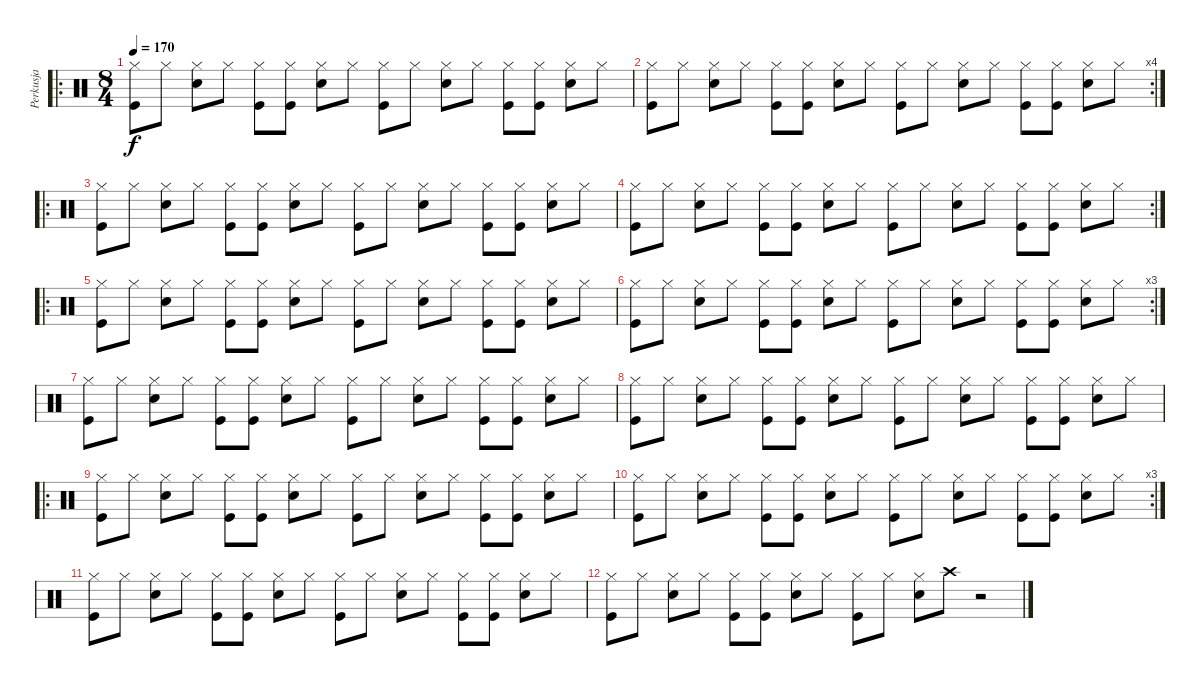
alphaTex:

\track ("Perkusja" "Perkusja") {instrument percussion}
\staff {score}
\articulation defaults
\ro
\ts (8 4)
\tempo 170
\clef neutral
\ks c
("Kick (hit)" "Hi-Hat (closed)").8{dy f} "Hi-Hat (closed)".8 ("Electric Snare (hit)" "Hi-Hat (closed)").8 "Hi-Hat (closed)".8 ("Kick (hit)" "Hi-Hat (closed)").8 ("Kick (hit)" "Hi-Hat (closed)").8 ("Electric Snare (hit)" "Hi-Hat (closed)").8 "Hi-Hat (closed)".8 ("Kick (hit)" "Hi-Hat (closed)").8 "Hi-Hat (closed)".8 ("Electric Snare (hit)" "Hi-Hat (closed)").8 "Hi-Hat (closed)".8 ("Kick (hit)" "Hi-Hat (closed)").8 ("Kick (hit)" "Hi-Hat (closed)").8 ("Electric Snare (hit)" "Hi-Hat (closed)").8 "Hi-Hat (closed)".8 |
\rc 4
("Kick (hit)" "Hi-Hat (closed)").8 "Hi-Hat (closed)".8 ("Electric Snare (hit)" "Hi-Hat (closed)").8 "Hi-Hat (closed)".8 ("Kick (hit)" "Hi-Hat (closed)").8 ("Kick (hit)" "Hi-Hat (closed)").8 ("Electric Snare (hit)" "Hi-Hat (closed)").8 "Hi-Hat (closed)".8 ("Kick (hit)" "Hi-Hat (closed)").8 "Hi-Hat (closed)".8 ("Electric Snare (hit)" "Hi-Hat (closed)").8 "Hi-Hat (closed)".8 ("Kick (hit)" "Hi-Hat (closed)").8 ("Kick (hit)" "Hi-Hat (closed)").8 ("Electric Snare (hit)" "Hi-Hat (closed)").8 "Hi-Hat (closed)".8 |
\ro
("Kick (hit)" "Hi-Hat (closed)").8 "Hi-Hat (closed)".8 ("Electric Snare (hit)" "Hi-Hat (closed)").8 "Hi-Hat (closed)".8 ("Kick (hit)" "Hi-Hat (closed)").8 ("Kick (hit)" "Hi-Hat (closed)").8 ("Electric Snare (hit)" "Hi-Hat (closed)").8 "Hi-Hat (closed)".8 ("Kick (hit)" "Hi-Hat (closed)").8 "Hi-Hat (closed)".8 ("Electric Snare (hit)" "Hi-Hat (closed)").8 "Hi-Hat (closed)".8 ("Kick (hit)" "Hi-Hat (closed)").8 ("Kick (hit)" "Hi-Hat (closed)").8 ("Electric Snare (hit)" "Hi-Hat (closed)").8 "Hi-Hat (closed)".8 |
\rc 2
("Kick (hit)" "Hi-Hat (closed)").8 "Hi-Hat (closed)".8 ("Electric Snare (hit)" "Hi-Hat (closed)").8 "Hi-Hat (closed)".8 ("Kick (hit)" "Hi-Hat (closed)").8 ("Kick (hit)" "Hi-Hat (closed)").8 ("Electric Snare (hit)" "Hi-Hat (closed)").8 "Hi-Hat (closed)".8 ("Kick (hit)" "Hi-Hat (closed)").8 "Hi-Hat (closed)".8 ("Electric Snare (hit)" "Hi-Hat (closed)").8 "Hi-Hat (closed)".8 ("Kick (hit)" "Hi-Hat (closed)").8 ("Kick (hit)" "Hi-Hat (closed)").8 ("Electric Snare (hit)" "Hi-Hat (closed)").8 "Hi-Hat (closed)".8 |
\ro
("Kick (hit)" "Hi-Hat (closed)").8 "Hi-Hat (closed)".8 ("Electric Snare (hit)" "Hi-Hat (closed)").8 "Hi-Hat (closed)".8 ("Kick (hit)" "Hi-Hat (closed)").8 ("Kick (hit)" "Hi-Hat (closed)").8 ("Electric Snare (hit)" "Hi-Hat (closed)").8 "Hi-Hat (closed)".8 ("Kick (hit)" "Hi-Hat (closed)").8 "Hi-Hat (closed)".8 ("Electric Snare (hit)" "Hi-Hat (closed)").8 "Hi-Hat (closed)".8 ("Kick (hit)" "Hi-Hat (closed)").8 ("Kick (hit)" "Hi-Hat (closed)").8 ("Electric Snare (hit)" "Hi-Hat (closed)").8 "Hi-Hat (closed)".8 |
\rc 3
("Kick (hit)" "Hi-Hat (closed)").8 "Hi-Hat (closed)".8 ("Electric Snare (hit)" "Hi-Hat (closed)").8 "Hi-Hat (closed)".8 ("Kick (hit)" "Hi-Hat (closed)").8 ("Kick (hit)" "Hi-Hat (closed)").8 ("Electric Snare (hit)" "Hi-Hat (closed)").8 "Hi-Hat (closed)".8 ("Kick (hit)" "Hi-Hat (closed)").8 "Hi-Hat (closed)".8 ("Electric Snare (hit)" "Hi-Hat (closed)").8 "Hi-Hat (closed)".8 ("Kick (hit)" "Hi-Hat (closed)").8 ("Kick (hit)" "Hi-Hat (closed)").8 ("Electric Snare (hit)" "Hi-Hat (closed)").8 "Hi-Hat (closed)".8 |
("Kick (hit)" "Hi-Hat (closed)").8 "Hi-Hat (closed)".8 ("Electric Snare (hit)" "Hi-Hat (closed)").8 "Hi-Hat (closed)".8 ("Kick (hit)" "Hi-Hat (closed)").8 ("Kick (hit)" "Hi-Hat (closed)").8 ("Electric Snare (hit)" "Hi-Hat (closed)").8 "Hi-Hat (closed)".8 ("Kick (hit)" "Hi-Hat (closed)").8 "Hi-Hat (closed)".8 ("Electric Snare (hit)" "Hi-Hat (closed)").8 "Hi-Hat (closed)".8 ("Kick (hit)" "Hi-Hat (closed)").8 ("Kick (hit)" "Hi-Hat (closed)").8 ("Electric Snare (hit)" "Hi-Hat (closed)").8 "Hi-Hat (closed)".8 |
("Kick (hit)" "Hi-Hat (closed)").8 "Hi-Hat (closed)".8 ("Electric Snare (hit)" "Hi-Hat (closed)").8 "Hi-Hat (closed)".8 ("Kick (hit)" "Hi-Hat (closed)").8 ("Kick (hit)" "Hi-Hat (closed)").8 ("Electric Snare (hit)" "Hi-Hat (closed)").8 "Hi-Hat (closed)".8 ("Kick (hit)" "Hi-Hat (closed)").8 "Hi-Hat (closed)".8 ("Electric Snare (hit)" "Hi-Hat (closed)").8 "Hi-Hat (closed)".8 ("Kick (hit)" "Hi-Hat (closed)").8 ("Kick (hit)" "Hi-Hat (closed)").8 ("Electric Snare (hit)" "Hi-Hat (closed)").8 "Hi-Hat (closed)".8 |
\ro
("Kick (hit)" "Hi-Hat (closed)").8 "Hi-Hat (closed)".8 ("Electric Snare (hit)" "Hi-Hat (closed)").8 "Hi-Hat (closed)".8 ("Kick (hit)" "Hi-Hat (closed)").8 ("Kick (hit)" "Hi-Hat (closed)").8 ("Electric Snare (hit)" "Hi-Hat (closed)").8 "Hi-Hat (closed)".8 ("Kick (hit)" "Hi-Hat (closed)").8 "Hi-Hat (closed)".8 ("Electric Snare (hit)" "Hi-Hat (closed)").8 "Hi-Hat (closed)".8 ("Kick (hit)" "Hi-Hat (closed)").8 ("Kick (hit)" "Hi-Hat (closed)").8 ("Electric Snare (hit)" "Hi-Hat (closed)").8 "Hi-Hat (closed)".8 |
\rc 3
("Kick (hit)" "Hi-Hat (closed)").8 "Hi-Hat (closed)".8 ("Electric Snare (hit)" "Hi-Hat (closed)").8 "Hi-Hat (closed)".8 ("Kick (hit)" "Hi-Hat (closed)").8 ("Kick (hit)" "Hi-Hat (closed)").8 ("Electric Snare (hit)" "Hi-Hat (closed)").8 "Hi-Hat (closed)".8 ("Kick (hit)" "Hi-Hat (closed)").8 "Hi-Hat (closed)".8 ("Electric Snare (hit)" "Hi-Hat (closed)").8 "Hi-Hat (closed)".8 ("Kick (hit)" "Hi-Hat (closed)").8 ("Kick (hit)" "Hi-Hat (closed)").8 ("Electric Snare (hit)" "Hi-Hat (closed)").8 "Hi-Hat (closed)".8 |
("Kick (hit)" "Hi-Hat (closed)").8 "Hi-Hat (closed)".8 ("Electric Snare (hit)" "Hi-Hat (closed)").8 "Hi-Hat (closed)".8 ("Kick (hit)" "Hi-Hat (closed)").8 ("Kick (hit)" "Hi-Hat (closed)").8 ("Electric Snare (hit)" "Hi-Hat (closed)").8 "Hi-Hat (closed)".8 ("Kick (hit)" "Hi-Hat (closed)").8 "Hi-Hat (closed)".8 ("Electric Snare (hit)" "Hi-Hat (closed)").8 "Hi-Hat (closed)".8 ("Kick (hit)" "Hi-Hat (closed)").8 ("Kick (hit)" "Hi-Hat (closed)").8 ("Electric Snare (hit)" "Hi-Hat (closed)").8 "Hi-Hat (closed)".8 |
("Kick (hit)" "Hi-Hat (closed)").8 "Hi-Hat (closed)".8 ("Electric Snare (hit)" "Hi-Hat (closed)").8 "Hi-Hat (closed)".8 ("Kick (hit)" "Hi-Hat (closed)").8 ("Kick (hit)" "Hi-Hat (closed)").8 ("Electric Snare (hit)" "Hi-Hat (closed)").8 "Hi-Hat (closed)".8 ("Kick (hit)" "Hi-Hat (closed)").8 "Hi-Hat (closed)".8 ("Electric Snare (hit)" "Hi-Hat (closed)").8 "Crash high (hit)".8 r.2
